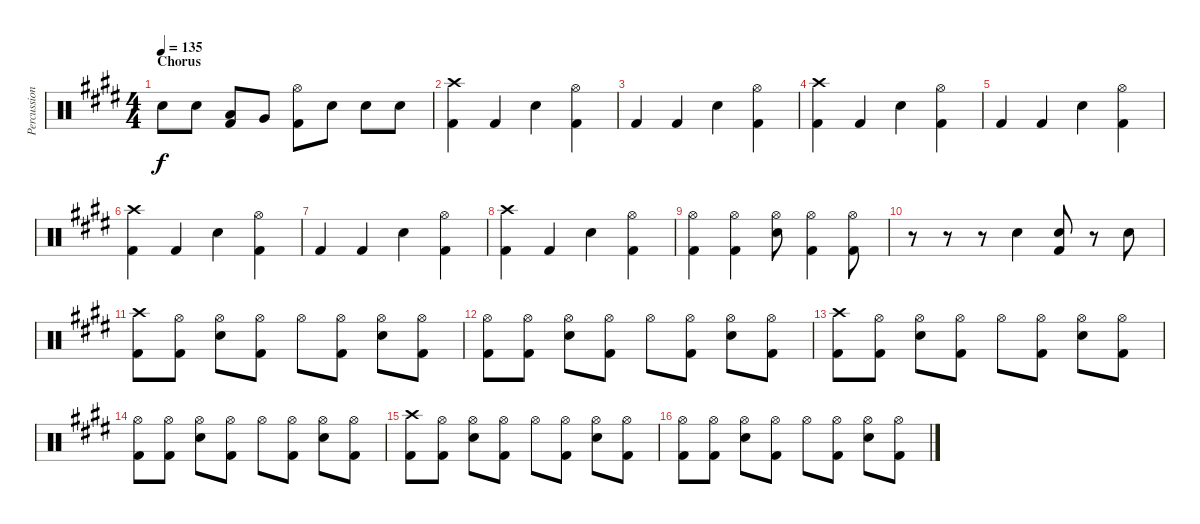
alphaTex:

\track ("Percussion" "Percussion") {instrument percussion}
\staff {score}
\articulation defaults
\ts (4 4)
\section ("" "Chorus")
\tempo 135
\clef neutral
\ks e "Electric Snare (hit)".8{dy f} "Electric Snare (hit)".8
("Low Tom (hit)" "Kick (hit) 2").8 "Very Low Tom (hit)".8 ("Hi-Hat (open)" "Kick (hit) 2").8 "Electric Snare (hit)".8 "Electric Snare (hit)".8 "Electric Snare (hit)".8 |
("Crash high (hit)" "Kick (hit) 2").4 "Kick (hit) 2".4 "Electric Snare (hit)".4 ("Hi-Hat (open)" "Kick (hit) 2").4 |
"Kick (hit) 2".4 "Kick (hit) 2".4 "Electric Snare (hit)".4 ("Hi-Hat (open)" "Kick (hit) 2").4 |
("Crash high (hit)" "Kick (hit) 2").4 "Kick (hit) 2".4 "Electric Snare (hit)".4 ("Hi-Hat (open)" "Kick (hit) 2").4 |
"Kick (hit) 2".4 "Kick (hit) 2".4 "Electric Snare (hit)".4 ("Hi-Hat (open)" "Kick (hit) 2").4 |
("Crash high (hit)" "Kick (hit) 2").4 "Kick (hit) 2".4 "Electric Snare (hit)".4 ("Hi-Hat (open)" "Kick (hit) 2").4 |
"Kick (hit) 2".4 "Kick (hit) 2".4 "Electric Snare (hit)".4 ("Hi-Hat (open)" "Kick (hit) 2").4 |
("Crash high (hit)" "Kick (hit) 2").4 "Kick (hit) 2".4 "Electric Snare (hit)".4 ("Hi-Hat (open)" "Kick (hit) 2").4 |
("Hi-Hat (open)" "Kick (hit) 2").4 ("Hi-Hat (open)" "Kick (hit) 2").4 ("Hi-Hat (open)" "Electric Snare (hit)").8 ("Hi-Hat (open)" "Kick (hit) 2").4 ("Hi-Hat (open)" "Kick (hit) 2").8 |
r.8 r.8 r.8 "Electric Snare (hit)".4 ("Electric Snare (hit)" "Kick (hit) 2").8 r.8 "Electric Snare (hit)".8 |
("Crash high (hit)" "Kick (hit) 2").8 ("Hi-Hat (open)" "Kick (hit) 2").8 ("Hi-Hat (open)" "Electric Snare (hit)").8 ("Hi-Hat (open)" "Kick (hit) 2").8 "Hi-Hat (open)".8 ("Hi-Hat (open)" "Kick (hit) 2").8 ("Hi-Hat (open)" "Electric Snare (hit)").8 ("Hi-Hat (open)" "Kick (hit) 2").8 |
("Hi-Hat (open)" "Kick (hit) 2").8 ("Hi-Hat (open)" "Kick (hit) 2").8 ("Hi-Hat (open)" "Electric Snare (hit)").8 ("Hi-Hat (open)" "Kick (hit) 2").8 "Hi-Hat (open)".8 ("Hi-Hat (open)" "Kick (hit) 2").8 ("Hi-Hat (open)" "Electric Snare (hit)").8 ("Hi-Hat (open)" "Kick (hit) 2").8 |
("Crash high (hit)" "Kick (hit) 2").8 ("Hi-Hat (open)" "Kick (hit) 2").8 ("Hi-Hat (open)" "Electric Snare (hit)").8 ("Hi-Hat (open)" "Kick (hit) 2").8 "Hi-Hat (open)".8 ("Hi-Hat (open)" "Kick (hit) 2").8 ("Hi-Hat (open)" "Electric Snare (hit)").8 ("Hi-Hat (open)" "Kick (hit) 2").8 |
("Hi-Hat (open)" "Kick (hit) 2").8 ("Hi-Hat (open)" "Kick (hit) 2").8 ("Hi-Hat (open)" "Electric Snare (hit)").8 ("Hi-Hat (open)" "Kick (hit) 2").8 "Hi-Hat (open)".8 ("Hi-Hat (open)" "Kick (hit) 2").8 ("Hi-Hat (open)" "Electric Snare (hit)").8 ("Hi-Hat (open)" "Kick (hit) 2").8 |
("Crash high (hit)" "Kick (hit) 2").8 ("Hi-Hat (open)" "Kick (hit) 2").8 ("Hi-Hat (open)" "Electric Snare (hit)").8 ("Hi-Hat (open)" "Kick (hit) 2").8 "Hi-Hat (open)".8 ("Hi-Hat (open)" "Kick (hit) 2").8 ("Hi-Hat (open)" "Electric Snare (hit)").8 ("Hi-Hat (open)" "Kick (hit) 2").8 |
("Hi-Hat (open)" "Kick (hit) 2").8 ("Hi-Hat (open)" "Kick (hit) 2").8 ("Hi-Hat (open)" "Electric Snare (hit)").8 ("Hi-Hat (open)" "Kick (hit) 2").8 "Hi-Hat (open)".8 ("Hi-Hat (open)" "Kick (hit) 2").8 ("Hi-Hat (open)" "Electric Snare (hit)").8 ("Hi-Hat (open)" "Kick (hit) 2").8
